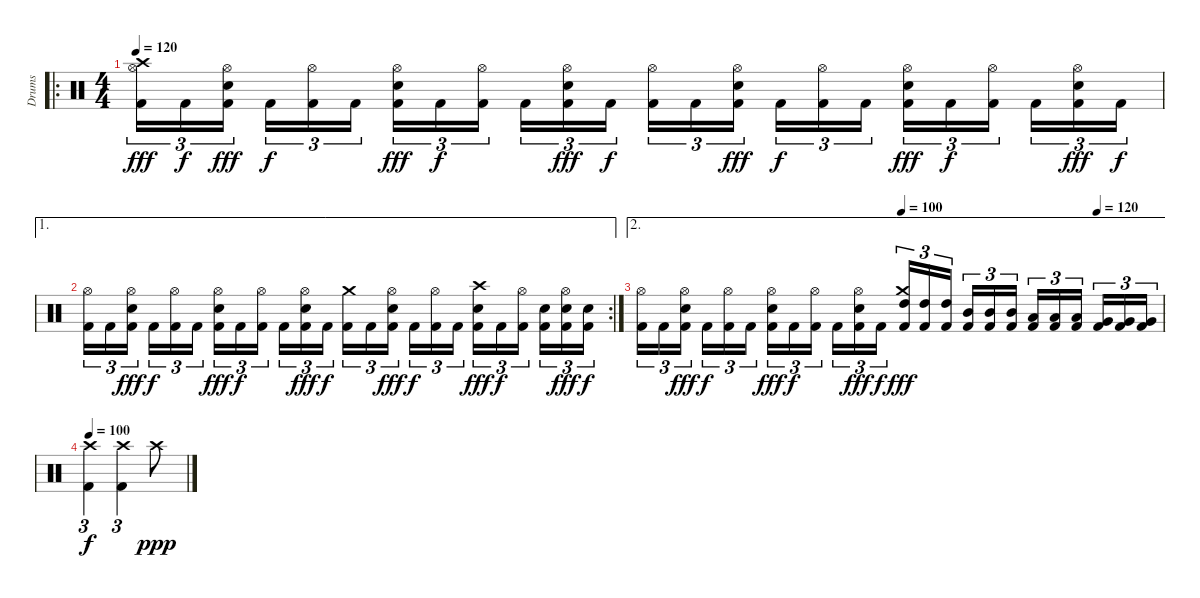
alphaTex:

\track ("Drums" "Drums") {instrument percussion}
\staff {score}
\articulation defaults
\ro
\ts (4 4)
\tempo 120
\clef neutral
\ks c
("Crash high (hit)" "Hi-Hat (open)" "Kick (hit) 2").16{tu (3 2) dy fff} "Kick (hit) 2".16{tu (3 2) dy f} ("Hi-Hat (open)" "Electric Snare (hit)" "Kick (hit) 2").16{tu (3 2) dy fff} "Kick (hit) 2".16{tu (3 2) dy f} ("Hi-Hat (open)" "Kick (hit) 2").16{tu (3 2)} "Kick (hit) 2".16{tu (3 2)} ("Hi-Hat (open)" "Electric Snare (hit)" "Kick (hit) 2").16{tu (3 2) dy fff} "Kick (hit) 2".16{tu (3 2) dy f} ("Hi-Hat (open)" "Kick (hit) 2").16{tu (3 2)} "Kick (hit) 2".16{tu (3 2)} ("Hi-Hat (open)" "Electric Snare (hit)" "Kick (hit) 2").16{tu (3 2) dy fff} "Kick (hit) 2".16{tu (3 2) dy f} ("Hi-Hat (open)" "Kick (hit) 2").16{tu (3 2)} "Kick (hit) 2".16{tu (3 2)} ("Hi-Hat (open)" "Electric Snare (hit)" "Kick (hit) 2").16{tu (3 2) dy fff} "Kick (hit) 2".16{tu (3 2) dy f} ("Hi-Hat (open)" "Kick (hit) 2").16{tu (3 2)} "Kick (hit) 2".16{tu (3 2)} ("Hi-Hat (open)" "Electric Snare (hit)" "Kick (hit) 2").16{tu (3 2) dy fff} "Kick (hit) 2".16{tu (3 2) dy f} ("Hi-Hat (open)" "Kick (hit) 2").16{tu (3 2)} "Kick (hit) 2".16{tu (3 2)} ("Hi-Hat (open)" "Electric Snare (hit)" "Kick (hit) 2").16{tu (3 2) dy fff} "Kick (hit) 2".16{tu (3 2) dy f} |
\ae 1
\rc 2
("Hi-Hat (open)" "Kick (hit) 2").16{tu (3 2)} "Kick (hit) 2".16{tu (3 2)} ("Hi-Hat (open)" "Electric Snare (hit)" "Kick (hit) 2").16{tu (3 2) dy fff} "Kick (hit) 2".16{tu (3 2) dy f} ("Hi-Hat (open)" "Kick (hit) 2").16{tu (3 2)} "Kick (hit) 2".16{tu (3 2)} ("Hi-Hat (open)" "Electric Snare (hit)" "Kick (hit) 2").16{tu (3 2) dy fff} "Kick (hit) 2".16{tu (3 2) dy f} ("Hi-Hat (open)" "Kick (hit) 2").16{tu (3 2)} "Kick (hit) 2".16{tu (3 2)} ("Hi-Hat (open)" "Electric Snare (hit)" "Kick (hit) 2").16{tu (3 2) dy fff} "Kick (hit) 2".16{tu (3 2) dy f} ("Crash medium (hit)" "Kick (hit) 2").16{tu (3 2)} "Kick (hit) 2".16{tu (3 2)} ("Hi-Hat (open)" "Electric Snare (hit)" "Kick (hit) 2").16{tu (3 2) dy fff} "Kick (hit) 2".16{tu (3 2) dy f} ("Hi-Hat (open)" "Kick (hit) 2").16{tu (3 2)} "Kick (hit) 2".16{tu (3 2)} ("Crash high (hit)" "Electric Snare (hit)" "Kick (hit) 2").16{tu (3 2) dy fff} "Kick (hit) 2".16{tu (3 2) dy f} ("Hi-Hat (open)" "Kick (hit) 2").16{tu (3 2)} ("Electric Snare (hit)" "Kick (hit) 2").16{tu (3 2)} ("Hi-Hat (open)" "Electric Snare (hit)" "Kick (hit) 2").16{tu (3 2) dy fff} ("Electric Snare (hit)" "Kick (hit) 2").16{tu (3 2) dy f} |
\ae 2
\tempo (100 0.5)
\tempo (120 0.875)
("Hi-Hat (open)" "Kick (hit) 2").16{tu (3 2)} "Kick (hit) 2".16{tu (3 2)} ("Hi-Hat (open)" "Electric Snare (hit)" "Kick (hit) 2").16{tu (3 2) dy fff} "Kick (hit) 2".16{tu (3 2) dy f} ("Hi-Hat (open)" "Kick (hit) 2").16{tu (3 2)} "Kick (hit) 2".16{tu (3 2)} ("Hi-Hat (open)" "Electric Snare (hit)" "Kick (hit) 2").16{tu (3 2) dy fff} "Kick (hit) 2".16{tu (3 2) dy f} ("Hi-Hat (open)" "Kick (hit) 2").16{tu (3 2)} "Kick (hit) 2".16{tu (3 2)} ("Hi-Hat (open)" "Electric Snare (hit)" "Kick (hit) 2").16{tu (3 2) dy fff} "Kick (hit) 2".16{tu (3 2) dy f} ("Crash medium (hit)" "High Tom (hit)" "Kick (hit) 2").16{tu (3 2) dy fff volume 16} ("High Tom (hit)" "Kick (hit) 2").16{tu (3 2)} ("High Tom (hit)" "Kick (hit) 2").16{tu (3 2)} ("Mid Tom (hit)" "Kick (hit) 2").16{tu (3 2)} ("Mid Tom (hit)" "Kick (hit) 2").16{tu (3 2)} ("Mid Tom (hit)" "Kick (hit) 2").16{tu (3 2)} ("Low Tom (hit)" "Kick (hit) 2").16{tu (3 2)} ("Low Tom (hit)" "Kick (hit) 2").16{tu (3 2)} ("Low Tom (hit)" "Kick (hit) 2").16{tu (3 2)} ("Very Low Tom (hit)" "Kick (hit) 2").16{tu (3 2)} ("Very Low Tom (hit)" "Kick (hit) 2").16{tu (3 2)} ("Very Low Tom (hit)" "Kick (hit) 2").16{tu (3 2)} |
\tempo 120
\tempo 100
("Crash high (hit)" "Kick (hit) 2").4{tu (3 2) dy f} ("Crash high (hit)" "Kick (hit) 2").4{tu (3 2)} "Crash high (hit)".8{dy ppp}
